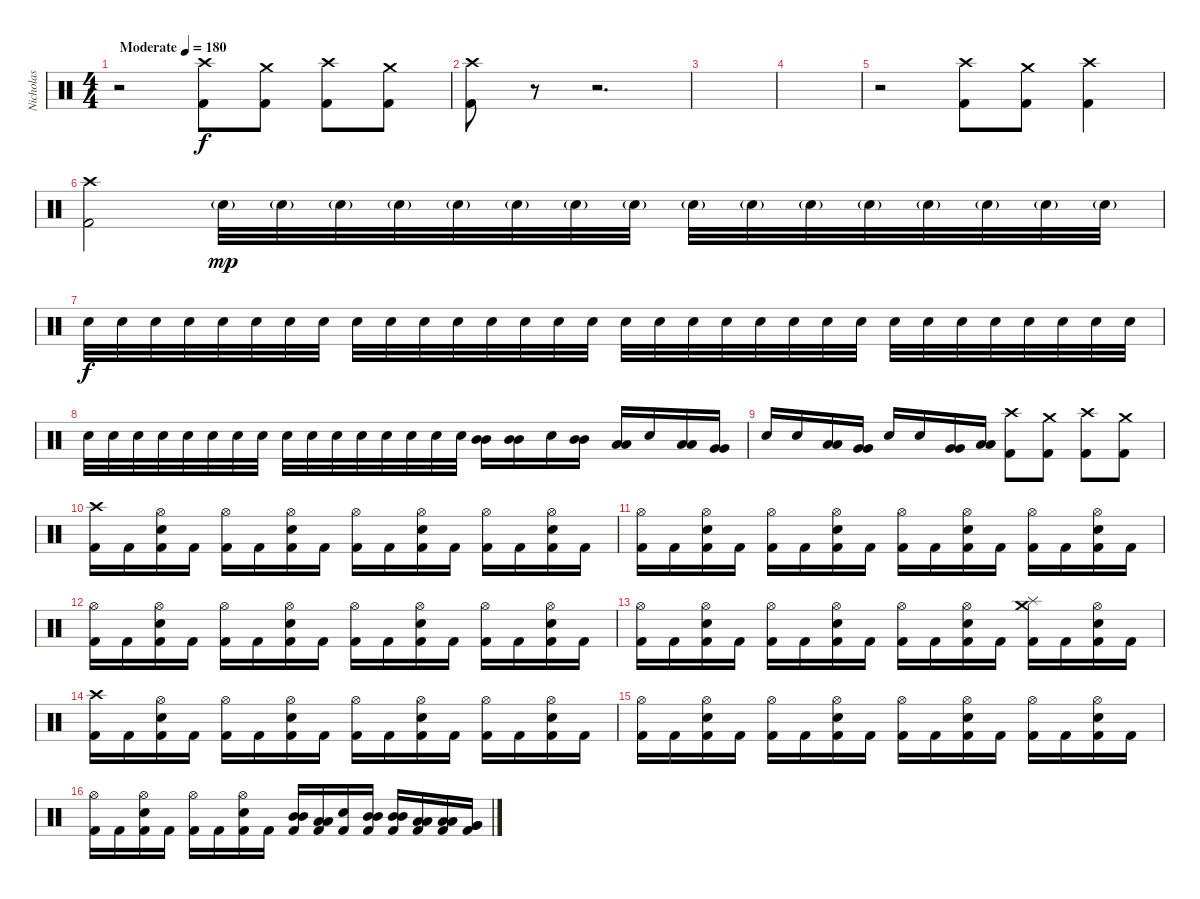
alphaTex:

\track ("Nicholas" "Nicholas") {instrument percussion}
\staff {score}
\articulation defaults
\ts (4 4)
\tempo (180 "Moderate")
\clef neutral
\ks c
r.2{dy f} ("Kick (hit) 2" "Crash high (hit)").8 ("Kick (hit) 2" "Crash medium (hit)").8 ("Kick (hit) 2" "Crash high (hit)").8 ("Kick (hit) 2" "Crash medium (hit)").8 |
("Kick (hit) 2" "Crash high (hit)").8 r.8 r.2{d} |
|
|
r.2 ("Kick (hit) 2" "Crash high (hit)").8 ("Kick (hit) 2" "Crash medium (hit)").8 ("Kick (hit) 2" "Crash high (hit)").4 |
("Kick (hit) 2" "Crash high (hit)").2{volume 2} "Electric Snare (hit)"{g}.32{dy mp volume 0} "Electric Snare (hit)"{g}.32{volume 14} "Electric Snare (hit)"{g}.32 "Electric Snare (hit)"{g}.32 "Electric Snare (hit)"{g}.32 "Electric Snare (hit)"{g}.32 "Electric Snare (hit)"{g}.32 "Electric Snare (hit)"{g}.32 "Electric Snare (hit)"{g}.32 "Electric Snare (hit)"{g}.32 "Electric Snare (hit)"{g}.32 "Electric Snare (hit)"{g}.32 "Electric Snare (hit)"{g}.32 "Electric Snare (hit)"{g}.32 "Electric Snare (hit)"{g}.32 "Electric Snare (hit)"{g}.32 |
"Electric Snare (hit)".32{dy f} "Electric Snare (hit)".32 "Electric Snare (hit)".32 "Electric Snare (hit)".32 "Electric Snare (hit)".32 "Electric Snare (hit)".32 "Electric Snare (hit)".32 "Electric Snare (hit)".32 "Electric Snare (hit)".32 "Electric Snare (hit)".32 "Electric Snare (hit)".32 "Electric Snare (hit)".32 "Electric Snare (hit)".32 "Electric Snare (hit)".32 "Electric Snare (hit)".32 "Electric Snare (hit)".32 "Electric Snare (hit)".32 "Electric Snare (hit)".32 "Electric Snare (hit)".32 "Electric Snare (hit)".32 "Electric Snare (hit)".32 "Electric Snare (hit)".32 "Electric Snare (hit)".32 "Electric Snare (hit)".32 "Electric Snare (hit)".32 "Electric Snare (hit)".32 "Electric Snare (hit)".32 "Electric Snare (hit)".32 "Electric Snare (hit)".32 "Electric Snare (hit)".32 "Electric Snare (hit)".32 "Electric Snare (hit)".32 |
"Electric Snare (hit)".32 "Electric Snare (hit)".32 "Electric Snare (hit)".32 "Electric Snare (hit)".32 "Electric Snare (hit)".32 "Electric Snare (hit)".32 "Electric Snare (hit)".32 "Electric Snare (hit)".32 "Electric Snare (hit)".32 "Electric Snare (hit)".32 "Electric Snare (hit)".32 "Electric Snare (hit)".32 "Electric Snare (hit)".32 "Electric Snare (hit)".32 "Electric Snare (hit)".32 "Electric Snare (hit)".32 ("Mid Tom (hit)" "Mid Tom (hit)").16 ("Mid Tom (hit)" "Mid Tom (hit)").16 "Electric Snare (hit)".16 ("Mid Tom (hit)" "Mid Tom (hit)").16 ("Low Tom (hit)" "Low Tom (hit)").16 "Electric Snare (hit)".16 ("Low Tom (hit)" "Low Tom (hit)").16 ("Very Low Tom (hit)" "Very Low Tom (hit)").16 |
"Electric Snare (hit)".16 "Electric Snare (hit)".16 ("Low Tom (hit)" "Low Tom (hit)").16 ("Very Low Tom (hit)" "Very Low Tom (hit)").16 "Electric Snare (hit)".16 "Electric Snare (hit)".16 ("Very Low Tom (hit)" "Very Low Tom (hit)").16 ("Low Floor Tom (hit)" "Low Floor Tom (hit)").16 ("Kick (hit) 2" "Crash high (hit)").8 ("Kick (hit) 2" "Crash medium (hit)").8 ("Kick (hit) 2" "Crash high (hit)").8 ("Kick (hit) 2" "Crash medium (hit)").8 |
("Kick (hit) 2" "Crash high (hit)").16 "Kick (hit) 2".16 ("Kick (hit) 2" "Electric Snare (hit)" "Hi-Hat (open)").16 "Kick (hit) 2".16 ("Kick (hit) 2" "Hi-Hat (open)").16 "Kick (hit) 2".16 ("Kick (hit) 2" "Electric Snare (hit)" "Hi-Hat (open)").16 "Kick (hit) 2".16 ("Kick (hit) 2" "Hi-Hat (open)").16 "Kick (hit) 2".16 ("Kick (hit) 2" "Electric Snare (hit)" "Hi-Hat (open)").16 "Kick (hit) 2".16 ("Kick (hit) 2" "Hi-Hat (open)").16 "Kick (hit) 2".16 ("Kick (hit) 2" "Electric Snare (hit)" "Hi-Hat (open)").16 "Kick (hit) 2".16 |
("Kick (hit) 2" "Hi-Hat (open)").16 "Kick (hit) 2".16 ("Kick (hit) 2" "Electric Snare (hit)" "Hi-Hat (open)").16 "Kick (hit) 2".16 ("Kick (hit) 2" "Hi-Hat (open)").16 "Kick (hit) 2".16 ("Kick (hit) 2" "Electric Snare (hit)" "Hi-Hat (open)").16 "Kick (hit) 2".16 ("Kick (hit) 2" "Hi-Hat (open)").16 "Kick (hit) 2".16 ("Kick (hit) 2" "Electric Snare (hit)" "Hi-Hat (open)").16 "Kick (hit) 2".16 ("Kick (hit) 2" "Hi-Hat (open)").16 "Kick (hit) 2".16 ("Kick (hit) 2" "Electric Snare (hit)" "Hi-Hat (open)").16 "Kick (hit) 2".16 |
("Kick (hit) 2" "Hi-Hat (open)").16 "Kick (hit) 2".16 ("Kick (hit) 2" "Electric Snare (hit)" "Hi-Hat (open)").16 "Kick (hit) 2".16 ("Kick (hit) 2" "Hi-Hat (open)").16 "Kick (hit) 2".16 ("Kick (hit) 2" "Electric Snare (hit)" "Hi-Hat (open)").16 "Kick (hit) 2".16 ("Kick (hit) 2" "Hi-Hat (open)").16 "Kick (hit) 2".16 ("Kick (hit) 2" "Electric Snare (hit)" "Hi-Hat (open)").16 "Kick (hit) 2".16 ("Kick (hit) 2" "Hi-Hat (open)").16 "Kick (hit) 2".16 ("Kick (hit) 2" "Electric Snare (hit)" "Hi-Hat (open)").16 "Kick (hit) 2".16 |
("Kick (hit) 2" "Hi-Hat (open)").16 "Kick (hit) 2".16 ("Kick (hit) 2" "Electric Snare (hit)" "Hi-Hat (open)").16 "Kick (hit) 2".16 ("Kick (hit) 2" "Hi-Hat (open)").16 "Kick (hit) 2".16 ("Kick (hit) 2" "Electric Snare (hit)" "Hi-Hat (open)").16 "Kick (hit) 2".16 ("Kick (hit) 2" "Hi-Hat (open)").16 "Kick (hit) 2".16 ("Kick (hit) 2" "Electric Snare (hit)" "Hi-Hat (open)").16 "Kick (hit) 2".16 ("Kick (hit) 2" "Crash medium (hit)" "Splash (hit)").16 "Kick (hit) 2".16 ("Kick (hit) 2" "Electric Snare (hit)" "Hi-Hat (open)").16 "Kick (hit) 2".16 |
("Kick (hit) 2" "Crash high (hit)").16 "Kick (hit) 2".16 ("Kick (hit) 2" "Electric Snare (hit)" "Hi-Hat (open)").16 "Kick (hit) 2".16 ("Kick (hit) 2" "Hi-Hat (open)").16 "Kick (hit) 2".16 ("Kick (hit) 2" "Electric Snare (hit)" "Hi-Hat (open)").16 "Kick (hit) 2".16 ("Kick (hit) 2" "Hi-Hat (open)").16 "Kick (hit) 2".16 ("Kick (hit) 2" "Electric Snare (hit)" "Hi-Hat (open)").16 "Kick (hit) 2".16 ("Kick (hit) 2" "Hi-Hat (open)").16 "Kick (hit) 2".16 ("Kick (hit) 2" "Electric Snare (hit)" "Hi-Hat (open)").16 "Kick (hit) 2".16 |
("Kick (hit) 2" "Hi-Hat (open)").16 "Kick (hit) 2".16 ("Kick (hit) 2" "Electric Snare (hit)" "Hi-Hat (open)").16 "Kick (hit) 2".16 ("Kick (hit) 2" "Hi-Hat (open)").16 "Kick (hit) 2".16 ("Kick (hit) 2" "Electric Snare (hit)" "Hi-Hat (open)").16 "Kick (hit) 2".16 ("Kick (hit) 2" "Hi-Hat (open)").16 "Kick (hit) 2".16 ("Kick (hit) 2" "Electric Snare (hit)" "Hi-Hat (open)").16 "Kick (hit) 2".16 ("Kick (hit) 2" "Hi-Hat (open)").16 "Kick (hit) 2".16 ("Kick (hit) 2" "Electric Snare (hit)" "Hi-Hat (open)").16 "Kick (hit) 2".16 |
("Kick (hit) 2" "Hi-Hat (open)").16 "Kick (hit) 2".16 ("Kick (hit) 2" "Electric Snare (hit)" "Hi-Hat (open)").16 "Kick (hit) 2".16 ("Kick (hit) 2" "Hi-Hat (open)").16 "Kick (hit) 2".16 ("Kick (hit) 2" "Electric Snare (hit)" "Hi-Hat (open)").16 "Kick (hit) 2".16 ("Kick (hit) 2" "Mid Tom (hit)" "Mid Tom (hit)").16 ("Kick (hit) 2" "Low Tom (hit)" "Low Tom (hit)").16 ("Kick (hit) 2" "Electric Snare (hit)").16 ("Kick (hit) 2" "Mid Tom (hit)" "Mid Tom (hit)").16 ("Kick (hit) 2" "Mid Tom (hit)" "Mid Tom (hit)").16 ("Kick (hit) 2" "Low Tom (hit)" "Low Tom (hit)").16 ("Kick (hit) 2" "Low Tom (hit)" "Low Tom (hit)").16 ("Kick (hit) 2" "Very Low Tom (hit)" "Very Low Tom (hit)").16
